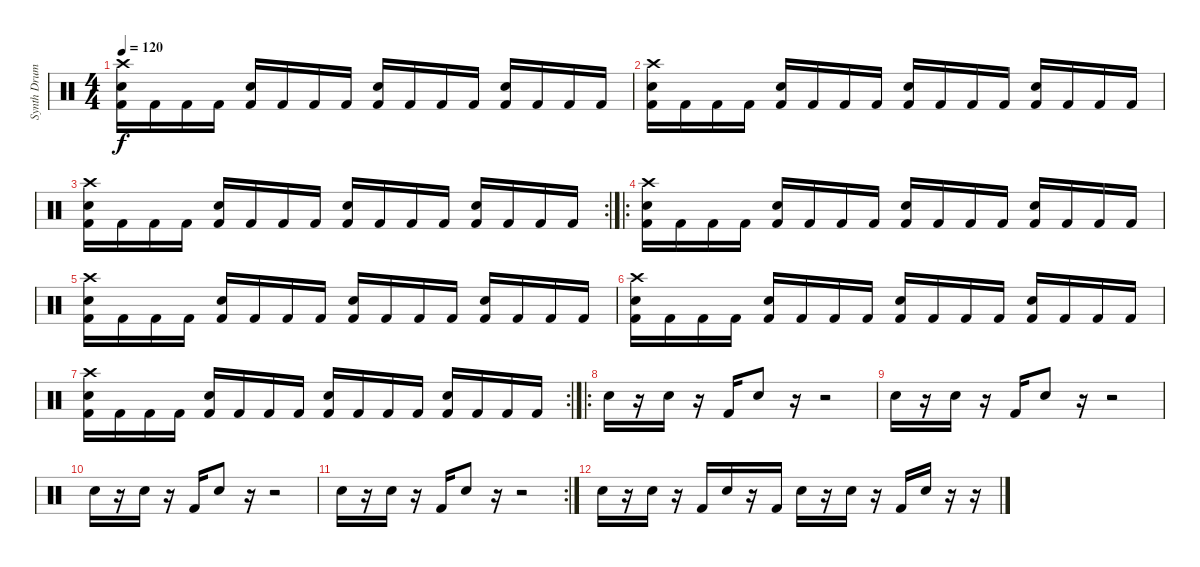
\track ("Synth Drums" "Synth Drum") {instrument percussion}
\staff {score}
\articulation defaults
\ts (4 4)
\tempo 120
\clef neutral
\ks c
("Crash high (hit)" "Electric Snare (hit)" "Kick (hit) 2").16{dy f} "Kick (hit) 2".16 "Kick (hit) 2".16 "Kick (hit) 2".16 ("Electric Snare (hit)" "Kick (hit) 2").16 "Kick (hit) 2".16 "Kick (hit) 2".16 "Kick (hit) 2".16 ("Electric Snare (hit)" "Kick (hit) 2").16 "Kick (hit) 2".16 "Kick (hit) 2".16 "Kick (hit) 2".16 ("Electric Snare (hit)" "Kick (hit) 2").16 "Kick (hit) 2".16 "Kick (hit) 2".16 "Kick (hit) 2".16 |
("Crash high (hit)" "Electric Snare (hit)" "Kick (hit) 2").16 "Kick (hit) 2".16 "Kick (hit) 2".16 "Kick (hit) 2".16 ("Electric Snare (hit)" "Kick (hit) 2").16 "Kick (hit) 2".16 "Kick (hit) 2".16 "Kick (hit) 2".16 ("Electric Snare (hit)" "Kick (hit) 2").16 "Kick (hit) 2".16 "Kick (hit) 2".16 "Kick (hit) 2".16 ("Electric Snare (hit)" "Kick (hit) 2").16 "Kick (hit) 2".16 "Kick (hit) 2".16 "Kick (hit) 2".16 |
\rc 2
("Crash high (hit)" "Electric Snare (hit)" "Kick (hit) 2").16 "Kick (hit) 2".16 "Kick (hit) 2".16 "Kick (hit) 2".16 ("Electric Snare (hit)" "Kick (hit) 2").16 "Kick (hit) 2".16 "Kick (hit) 2".16 "Kick (hit) 2".16 ("Electric Snare (hit)" "Kick (hit) 2").16 "Kick (hit) 2".16 "Kick (hit) 2".16 "Kick (hit) 2".16 ("Electric Snare (hit)" "Kick (hit) 2").16 "Kick (hit) 2".16 "Kick (hit) 2".16 "Kick (hit) 2".16 |
\ro
("Crash high (hit)" "Electric Snare (hit)" "Kick (hit) 2").16 "Kick (hit) 2".16 "Kick (hit) 2".16 "Kick (hit) 2".16 ("Electric Snare (hit)" "Kick (hit) 2").16 "Kick (hit) 2".16 "Kick (hit) 2".16 "Kick (hit) 2".16 ("Electric Snare (hit)" "Kick (hit) 2").16 "Kick (hit) 2".16 "Kick (hit) 2".16 "Kick (hit) 2".16 ("Electric Snare (hit)" "Kick (hit) 2").16 "Kick (hit) 2".16 "Kick (hit) 2".16 "Kick (hit) 2".16 |
("Crash high (hit)" "Electric Snare (hit)" "Kick (hit) 2").16 "Kick (hit) 2".16 "Kick (hit) 2".16 "Kick (hit) 2".16 ("Electric Snare (hit)" "Kick (hit) 2").16 "Kick (hit) 2".16 "Kick (hit) 2".16 "Kick (hit) 2".16 ("Electric Snare (hit)" "Kick (hit) 2").16 "Kick (hit) 2".16 "Kick (hit) 2".16 "Kick (hit) 2".16 ("Electric Snare (hit)" "Kick (hit) 2").16 "Kick (hit) 2".16 "Kick (hit) 2".16 "Kick (hit) 2".16 |
("Crash high (hit)" "Electric Snare (hit)" "Kick (hit) 2").16 "Kick (hit) 2".16 "Kick (hit) 2".16 "Kick (hit) 2".16 ("Electric Snare (hit)" "Kick (hit) 2").16 "Kick (hit) 2".16 "Kick (hit) 2".16 "Kick (hit) 2".16 ("Electric Snare (hit)" "Kick (hit) 2").16 "Kick (hit) 2".16 "Kick (hit) 2".16 "Kick (hit) 2".16 ("Electric Snare (hit)" "Kick (hit) 2").16 "Kick (hit) 2".16 "Kick (hit) 2".16 "Kick (hit) 2".16 |
\rc 2
("Crash high (hit)" "Electric Snare (hit)" "Kick (hit) 2").16 "Kick (hit) 2".16 "Kick (hit) 2".16 "Kick (hit) 2".16 ("Electric Snare (hit)" "Kick (hit) 2").16 "Kick (hit) 2".16 "Kick (hit) 2".16 "Kick (hit) 2".16 ("Electric Snare (hit)" "Kick (hit) 2").16 "Kick (hit) 2".16 "Kick (hit) 2".16 "Kick (hit) 2".16 ("Electric Snare (hit)" "Kick (hit) 2").16 "Kick (hit) 2".16 "Kick (hit) 2".16 "Kick (hit) 2".16 |
\ro "Electric Snare (hit)".16
r.16 "Electric Snare (hit)".16 r.16 "Kick (hit) 2".16 "Electric Snare (hit)".8 r.16 r.2 |
"Electric Snare (hit)".16 r.16 "Electric Snare (hit)".16 r.16 "Kick (hit) 2".16 "Electric Snare (hit)".8 r.16 r.2 |
"Electric Snare (hit)".16 r.16 "Electric Snare (hit)".16 r.16 "Kick (hit) 2".16 "Electric Snare (hit)".8 r.16 r.2 |
\rc 2 "Electric Snare (hit)".16
r.16 "Electric Snare (hit)".16 r.16 "Kick (hit) 2".16 "Electric Snare (hit)".8 r.16 r.2 |
"Electric Snare (hit)".16 r.16 "Electric Snare (hit)".16 r.16 "Kick (hit) 2".16 "Electric Snare (hit)".16 r.16 "Kick (hit) 2".16 "Electric Snare (hit)".16 r.16 "Electric Snare (hit)".16 r.16 "Kick (hit) 2".16 "Electric Snare (hit)".16 r.16 r.16
